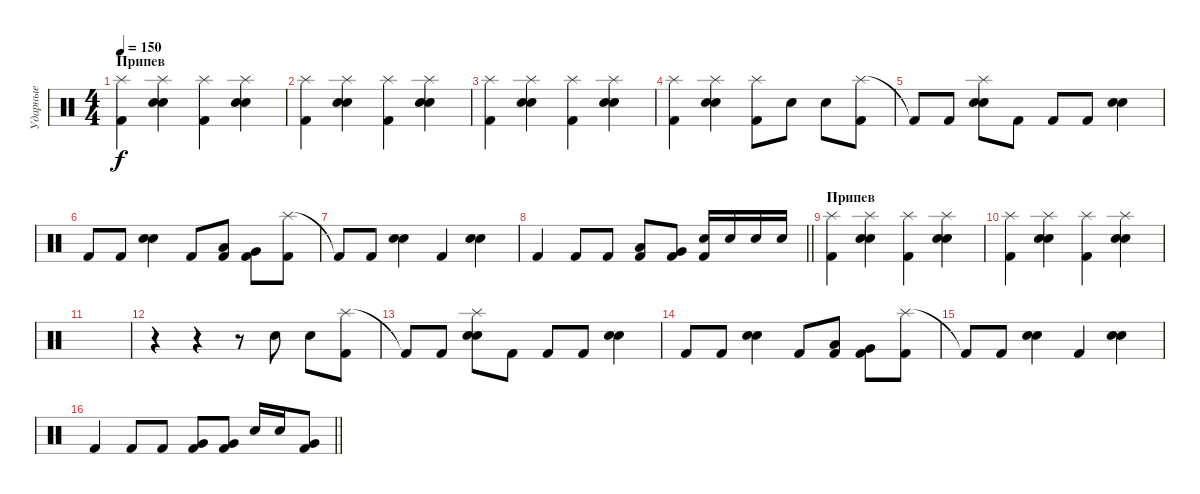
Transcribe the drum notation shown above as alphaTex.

\track ("Ударные" "Ударные") {instrument percussion}
\staff {score}
\articulation defaults
\ts (4 4)
\section ("" "Припев")
\tempo 150
\clef neutral
\ks c
("Splash (hit)" "Kick (hit) 2").4{dy f} ("Splash (hit)" "Electric Snare (hit)" "Snare (hit) 2").4 ("Splash (hit)" "Kick (hit) 2").4 ("Splash (hit)" "Electric Snare (hit)" "Snare (hit) 2").4 |
("Splash (hit)" "Kick (hit) 2").4 ("Splash (hit)" "Electric Snare (hit)" "Snare (hit) 2").4 ("Splash (hit)" "Kick (hit) 2").4 ("Splash (hit)" "Electric Snare (hit)" "Snare (hit) 2").4 |
("Splash (hit)" "Kick (hit) 2").4 ("Splash (hit)" "Electric Snare (hit)" "Snare (hit) 2").4 ("Splash (hit)" "Kick (hit) 2").4 ("Splash (hit)" "Electric Snare (hit)" "Snare (hit) 2").4 |
("Splash (hit)" "Kick (hit) 2").4 ("Splash (hit)" "Electric Snare (hit)" "Snare (hit) 2").4 ("Splash (hit)" "Kick (hit) 2").8 "Electric Snare (hit)".8 "Electric Snare (hit)".8 ("Splash (hit)" "Kick (hit) 2").8 |
"Kick (hit) 2"{t}.8 "Kick (hit) 2".8 ("Splash (hit)" "Electric Snare (hit)" "Snare (hit) 2").8 "Kick (hit) 2".8 "Kick (hit) 2".8 "Kick (hit) 2".8 ("Electric Snare (hit)" "Snare (hit) 2").4 |
"Kick (hit) 2".8 "Kick (hit) 2".8 ("Electric Snare (hit)" "Snare (hit) 2").4 "Kick (hit) 2".8 ("Low Tom (hit)" "Kick (hit) 2").8 ("Very Low Tom (hit)" "Kick (hit) 2").8 ("Splash (hit)" "Kick (hit) 2").8 |
"Kick (hit) 2"{t}.8 "Kick (hit) 2".8 ("Electric Snare (hit)" "Snare (hit) 2").4 "Kick (hit) 2".4 ("Electric Snare (hit)" "Snare (hit) 2").4 |
\barLineRight lightlight "Kick (hit) 2".4 "Kick (hit) 2".8 "Kick (hit) 2".8
("Low Tom (hit)" "Kick (hit) 2").8 ("Very Low Tom (hit)" "Kick (hit) 2").8 ("Electric Snare (hit)" "Kick (hit) 2").16 "Electric Snare (hit)".16 "Electric Snare (hit)".16 "Electric Snare (hit)".16 |
\section ("" "Припев")
("Splash (hit)" "Kick (hit) 2").4 ("Splash (hit)" "Electric Snare (hit)" "Snare (hit) 2").4 ("Splash (hit)" "Kick (hit) 2").4 ("Splash (hit)" "Electric Snare (hit)" "Snare (hit) 2").4 |
("Splash (hit)" "Kick (hit) 2").4 ("Splash (hit)" "Electric Snare (hit)" "Snare (hit) 2").4 ("Splash (hit)" "Kick (hit) 2").4 ("Splash (hit)" "Electric Snare (hit)" "Snare (hit) 2").4 |
|
r.4 r.4 r.8 "Electric Snare (hit)".8 "Electric Snare (hit)".8 ("Splash (hit)" "Kick (hit) 2").8 |
"Kick (hit) 2"{t}.8 "Kick (hit) 2".8 ("Splash (hit)" "Electric Snare (hit)" "Snare (hit) 2").8 "Kick (hit) 2".8 "Kick (hit) 2".8 "Kick (hit) 2".8 ("Electric Snare (hit)" "Snare (hit) 2").4 |
"Kick (hit) 2".8 "Kick (hit) 2".8 ("Electric Snare (hit)" "Snare (hit) 2").4 "Kick (hit) 2".8 ("Low Tom (hit)" "Kick (hit) 2").8 ("Very Low Tom (hit)" "Kick (hit) 2").8 ("Splash (hit)" "Kick (hit) 2").8 |
"Kick (hit) 2"{t}.8 "Kick (hit) 2".8 ("Electric Snare (hit)" "Snare (hit) 2").4 "Kick (hit) 2".4 ("Electric Snare (hit)" "Snare (hit) 2").4 |
\barLineRight lightlight "Kick (hit) 2".4 "Kick (hit) 2".8 "Kick (hit) 2".8
("Very Low Tom (hit)" "Kick (hit) 2").8 ("Very Low Tom (hit)" "Kick (hit) 2").8 "Electric Snare (hit)".16 "Electric Snare (hit)".16 ("Very Low Tom (hit)" "Kick (hit) 2").8
